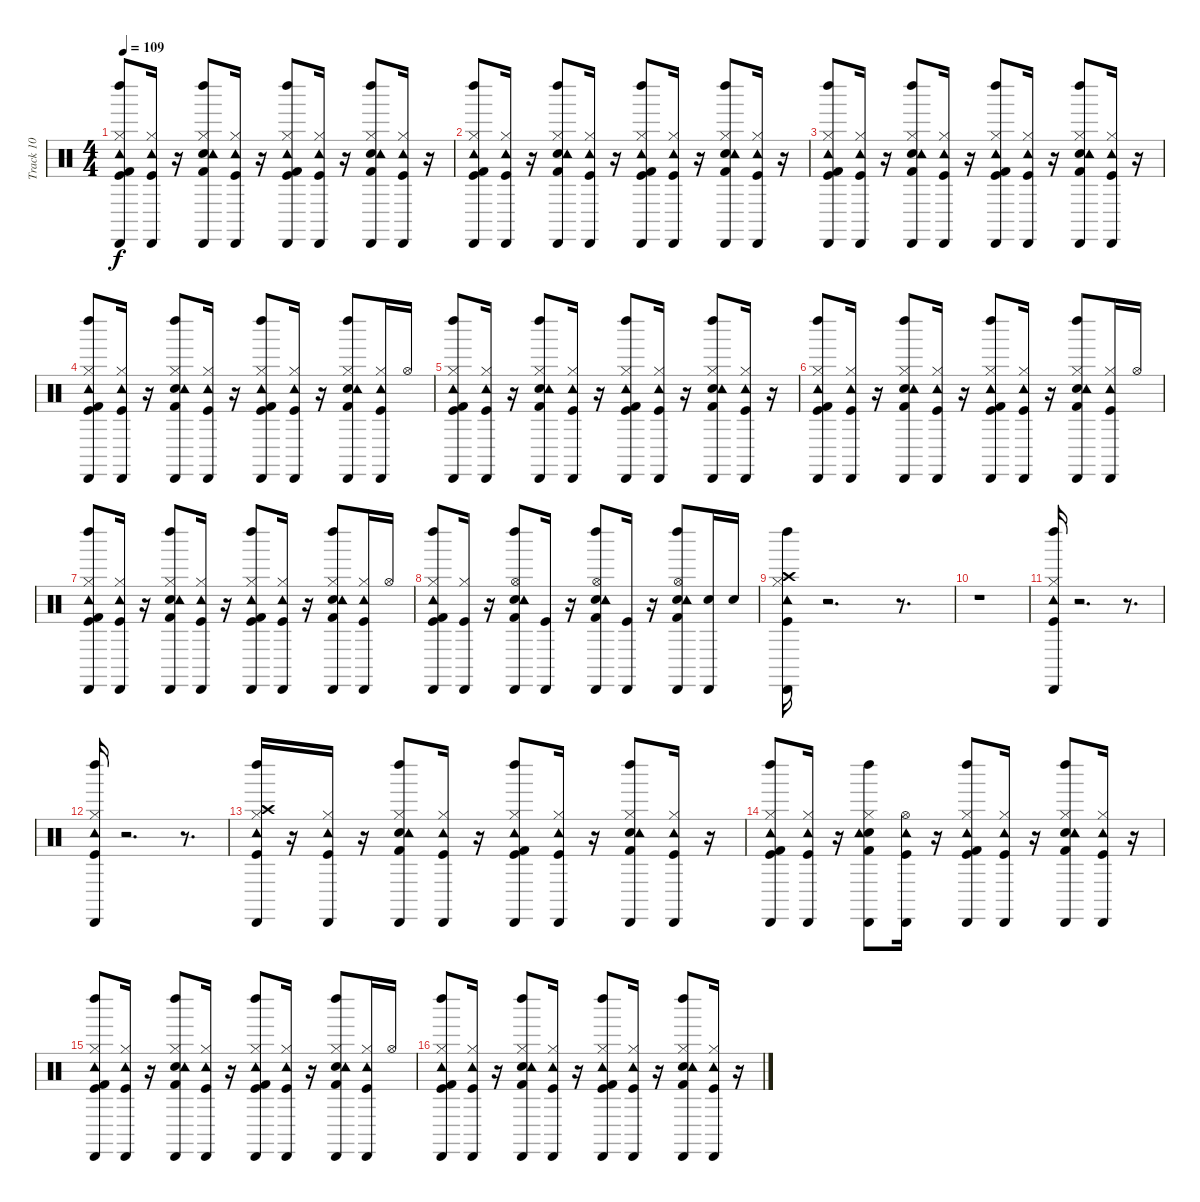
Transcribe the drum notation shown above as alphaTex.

\track ("Track 10" "Track 10") {instrument percussion}
\staff {score}
\articulation defaults
\ts (4 4)
\tempo 109
\clef neutral
\ks c
("Kick (hit)" "Hi-Hat (closed)" "Tambourine (hit)" "Left Maraca (hit)" "Cabasa (hit)" "Kick (hit) 2").8{dy f} ("Kick (hit)" "Hi-Hat (closed)" "Tambourine (hit)" "Cabasa (hit)").16 r.16 ("Snare (hit) 2" "Hi-Hat (closed)" "Tambourine (hit)" "Left Maraca (hit)" "Cabasa (hit)" "Kick (hit) 2").8 ("Kick (hit)" "Hi-Hat (closed)" "Tambourine (hit)" "Cabasa (hit)").16 r.16 ("Kick (hit)" "Hi-Hat (closed)" "Tambourine (hit)" "Left Maraca (hit)" "Cabasa (hit)" "Kick (hit) 2").8 ("Kick (hit)" "Hi-Hat (closed)" "Tambourine (hit)" "Cabasa (hit)").16 r.16 ("Snare (hit) 2" "Hi-Hat (closed)" "Tambourine (hit)" "Left Maraca (hit)" "Cabasa (hit)" "Kick (hit) 2").8 ("Kick (hit)" "Hi-Hat (closed)" "Tambourine (hit)" "Cabasa (hit)").16 r.16 |
("Kick (hit)" "Hi-Hat (closed)" "Tambourine (hit)" "Left Maraca (hit)" "Cabasa (hit)" "Kick (hit) 2").8 ("Kick (hit)" "Hi-Hat (closed)" "Tambourine (hit)" "Cabasa (hit)").16 r.16 ("Snare (hit) 2" "Hi-Hat (closed)" "Tambourine (hit)" "Left Maraca (hit)" "Cabasa (hit)" "Kick (hit) 2").8 ("Kick (hit)" "Hi-Hat (closed)" "Tambourine (hit)" "Cabasa (hit)").16 r.16 ("Kick (hit)" "Hi-Hat (closed)" "Tambourine (hit)" "Left Maraca (hit)" "Cabasa (hit)" "Kick (hit) 2").8 ("Kick (hit)" "Hi-Hat (closed)" "Tambourine (hit)" "Cabasa (hit)").16 r.16 ("Snare (hit) 2" "Hi-Hat (closed)" "Tambourine (hit)" "Left Maraca (hit)" "Cabasa (hit)" "Kick (hit) 2").8 ("Kick (hit)" "Hi-Hat (closed)" "Tambourine (hit)" "Cabasa (hit)").16 r.16 |
("Kick (hit)" "Hi-Hat (closed)" "Tambourine (hit)" "Left Maraca (hit)" "Cabasa (hit)" "Kick (hit) 2").8 ("Kick (hit)" "Hi-Hat (closed)" "Tambourine (hit)" "Cabasa (hit)").16 r.16 ("Snare (hit) 2" "Hi-Hat (closed)" "Tambourine (hit)" "Left Maraca (hit)" "Cabasa (hit)" "Kick (hit) 2").8 ("Kick (hit)" "Hi-Hat (closed)" "Tambourine (hit)" "Cabasa (hit)").16 r.16 ("Kick (hit)" "Hi-Hat (closed)" "Tambourine (hit)" "Left Maraca (hit)" "Cabasa (hit)" "Kick (hit) 2").8 ("Kick (hit)" "Hi-Hat (closed)" "Tambourine (hit)" "Cabasa (hit)").16 r.16 ("Snare (hit) 2" "Hi-Hat (closed)" "Tambourine (hit)" "Left Maraca (hit)" "Cabasa (hit)" "Kick (hit) 2").8 ("Kick (hit)" "Hi-Hat (closed)" "Tambourine (hit)" "Cabasa (hit)").16 r.16 |
("Kick (hit)" "Hi-Hat (closed)" "Tambourine (hit)" "Left Maraca (hit)" "Cabasa (hit)" "Kick (hit) 2").8 ("Kick (hit)" "Hi-Hat (closed)" "Tambourine (hit)" "Cabasa (hit)").16 r.16 ("Snare (hit) 2" "Hi-Hat (closed)" "Tambourine (hit)" "Left Maraca (hit)" "Cabasa (hit)" "Kick (hit) 2").8 ("Kick (hit)" "Hi-Hat (closed)" "Tambourine (hit)" "Cabasa (hit)").16 r.16 ("Kick (hit)" "Hi-Hat (closed)" "Tambourine (hit)" "Left Maraca (hit)" "Cabasa (hit)" "Kick (hit) 2").8 ("Kick (hit)" "Hi-Hat (closed)" "Tambourine (hit)" "Cabasa (hit)").16 r.16 ("Snare (hit) 2" "Hi-Hat (closed)" "Tambourine (hit)" "Left Maraca (hit)" "Cabasa (hit)" "Kick (hit) 2").8 ("Kick (hit)" "Hi-Hat (closed)" "Tambourine (hit)" "Cabasa (hit)").16 "Hi-Hat (open)".16 |
("Kick (hit)" "Hi-Hat (closed)" "Tambourine (hit)" "Left Maraca (hit)" "Cabasa (hit)" "Kick (hit) 2").8 ("Kick (hit)" "Hi-Hat (closed)" "Tambourine (hit)" "Cabasa (hit)").16 r.16 ("Snare (hit) 2" "Hi-Hat (closed)" "Tambourine (hit)" "Left Maraca (hit)" "Cabasa (hit)" "Kick (hit) 2").8 ("Kick (hit)" "Hi-Hat (closed)" "Tambourine (hit)" "Cabasa (hit)").16 r.16 ("Kick (hit)" "Hi-Hat (closed)" "Tambourine (hit)" "Left Maraca (hit)" "Cabasa (hit)" "Kick (hit) 2").8 ("Kick (hit)" "Hi-Hat (closed)" "Tambourine (hit)" "Cabasa (hit)").16 r.16 ("Snare (hit) 2" "Hi-Hat (closed)" "Tambourine (hit)" "Left Maraca (hit)" "Cabasa (hit)" "Kick (hit) 2").8 ("Kick (hit)" "Hi-Hat (closed)" "Tambourine (hit)" "Cabasa (hit)").16 r.16 |
("Kick (hit)" "Hi-Hat (closed)" "Tambourine (hit)" "Left Maraca (hit)" "Cabasa (hit)" "Kick (hit) 2").8 ("Kick (hit)" "Hi-Hat (closed)" "Tambourine (hit)" "Cabasa (hit)").16 r.16 ("Snare (hit) 2" "Hi-Hat (closed)" "Tambourine (hit)" "Left Maraca (hit)" "Cabasa (hit)" "Kick (hit) 2").8 ("Kick (hit)" "Hi-Hat (closed)" "Tambourine (hit)" "Cabasa (hit)").16 r.16 ("Kick (hit)" "Hi-Hat (closed)" "Tambourine (hit)" "Left Maraca (hit)" "Cabasa (hit)" "Kick (hit) 2").8 ("Kick (hit)" "Hi-Hat (closed)" "Tambourine (hit)" "Cabasa (hit)").16 r.16 ("Snare (hit) 2" "Hi-Hat (closed)" "Tambourine (hit)" "Left Maraca (hit)" "Cabasa (hit)" "Kick (hit) 2").8 ("Kick (hit)" "Hi-Hat (closed)" "Tambourine (hit)" "Cabasa (hit)").16 "Hi-Hat (open)".16 |
("Kick (hit)" "Hi-Hat (closed)" "Tambourine (hit)" "Left Maraca (hit)" "Cabasa (hit)" "Kick (hit) 2").8 ("Kick (hit)" "Hi-Hat (closed)" "Tambourine (hit)" "Cabasa (hit)").16 r.16 ("Snare (hit) 2" "Hi-Hat (closed)" "Tambourine (hit)" "Left Maraca (hit)" "Cabasa (hit)" "Kick (hit) 2").8 ("Kick (hit)" "Hi-Hat (closed)" "Tambourine (hit)" "Cabasa (hit)").16 r.16 ("Kick (hit)" "Hi-Hat (closed)" "Tambourine (hit)" "Left Maraca (hit)" "Cabasa (hit)" "Kick (hit) 2").8 ("Kick (hit)" "Hi-Hat (closed)" "Tambourine (hit)" "Cabasa (hit)").16 r.16 ("Snare (hit) 2" "Hi-Hat (closed)" "Tambourine (hit)" "Left Maraca (hit)" "Cabasa (hit)" "Kick (hit) 2").8 ("Kick (hit)" "Hi-Hat (closed)" "Tambourine (hit)" "Cabasa (hit)").16 "Hi-Hat (open)".16 |
("Kick (hit)" "Hi-Hat (closed)" "Tambourine (hit)" "Left Maraca (hit)" "Cabasa (hit)" "Kick (hit) 2").8 ("Kick (hit)" "Hi-Hat (closed)" "Cabasa (hit)").16 r.16 ("Snare (hit) 2" "Hi-Hat (open)" "Tambourine (hit)" "Left Maraca (hit)" "Cabasa (hit)" "Kick (hit) 2").8 ("Kick (hit)" "Cabasa (hit)").16 r.16 ("Snare (hit) 2" "Hi-Hat (open)" "Tambourine (hit)" "Left Maraca (hit)" "Cabasa (hit)" "Kick (hit) 2").8 ("Kick (hit)" "Cabasa (hit)").16 r.16 ("Snare (hit) 2" "Hi-Hat (open)" "Tambourine (hit)" "Left Maraca (hit)" "Cabasa (hit)" "Kick (hit) 2").8 ("Snare (hit) 2" "Cabasa (hit)").16 "Snare (hit) 2".16 |
("Kick (hit)" "Hi-Hat (closed)" "Crash high (hit)" "Tambourine (hit)" "Left Maraca (hit)" "Cabasa (hit)").16 r.2{d} r.8{d} |
r.1 |
("Kick (hit)" "Hi-Hat (closed)" "Tambourine (hit)" "Left Maraca (hit)" "Cabasa (hit)").16 r.2{d} r.8{d} |
("Kick (hit)" "Hi-Hat (closed)" "Tambourine (hit)" "Left Maraca (hit)" "Cabasa (hit)").16 r.2{d} r.8{d} |
("Kick (hit)" "Hi-Hat (closed)" "Crash high (hit)" "Tambourine (hit)" "Left Maraca (hit)" "Cabasa (hit)").16 r.16 ("Kick (hit)" "Hi-Hat (closed)" "Tambourine (hit)" "Cabasa (hit)").16 r.16 ("Snare (hit) 2" "Hi-Hat (closed)" "Tambourine (hit)" "Left Maraca (hit)" "Cabasa (hit)" "Kick (hit) 2").8 ("Kick (hit)" "Hi-Hat (closed)" "Tambourine (hit)" "Cabasa (hit)").16 r.16 ("Kick (hit)" "Hi-Hat (closed)" "Tambourine (hit)" "Left Maraca (hit)" "Cabasa (hit)" "Kick (hit) 2").8 ("Kick (hit)" "Hi-Hat (closed)" "Tambourine (hit)" "Cabasa (hit)").16 r.16 ("Snare (hit) 2" "Hi-Hat (closed)" "Tambourine (hit)" "Left Maraca (hit)" "Cabasa (hit)" "Kick (hit) 2").8 ("Kick (hit)" "Hi-Hat (closed)" "Tambourine (hit)" "Cabasa (hit)").16 r.16 |
("Kick (hit)" "Hi-Hat (closed)" "Tambourine (hit)" "Left Maraca (hit)" "Cabasa (hit)" "Kick (hit) 2").8 ("Kick (hit)" "Hi-Hat (closed)" "Tambourine (hit)" "Cabasa (hit)").16 r.16 ("Snare (hit) 2" "Hi-Hat (closed)" "Tambourine (hit)" "Left Maraca (hit)" "Cabasa (hit)" "Kick (hit) 2").8 ("Kick (hit)" "Hi-Hat (open)" "Tambourine (hit)" "Cabasa (hit)").16 r.16 ("Kick (hit)" "Hi-Hat (closed)" "Tambourine (hit)" "Left Maraca (hit)" "Cabasa (hit)" "Kick (hit) 2").8 ("Kick (hit)" "Hi-Hat (closed)" "Tambourine (hit)" "Cabasa (hit)").16 r.16 ("Snare (hit) 2" "Hi-Hat (closed)" "Tambourine (hit)" "Left Maraca (hit)" "Cabasa (hit)" "Kick (hit) 2").8 ("Kick (hit)" "Hi-Hat (closed)" "Tambourine (hit)" "Cabasa (hit)").16 r.16 |
("Kick (hit)" "Hi-Hat (closed)" "Tambourine (hit)" "Left Maraca (hit)" "Cabasa (hit)" "Kick (hit) 2").8 ("Kick (hit)" "Hi-Hat (closed)" "Tambourine (hit)" "Cabasa (hit)").16 r.16 ("Snare (hit) 2" "Hi-Hat (closed)" "Tambourine (hit)" "Left Maraca (hit)" "Cabasa (hit)" "Kick (hit) 2").8 ("Kick (hit)" "Hi-Hat (closed)" "Tambourine (hit)" "Cabasa (hit)").16 r.16 ("Kick (hit)" "Hi-Hat (closed)" "Tambourine (hit)" "Left Maraca (hit)" "Cabasa (hit)" "Kick (hit) 2").8 ("Kick (hit)" "Hi-Hat (closed)" "Tambourine (hit)" "Cabasa (hit)").16 r.16 ("Snare (hit) 2" "Hi-Hat (closed)" "Tambourine (hit)" "Left Maraca (hit)" "Cabasa (hit)" "Kick (hit) 2").8 ("Kick (hit)" "Hi-Hat (closed)" "Tambourine (hit)" "Cabasa (hit)").16 "Hi-Hat (open)".16 |
("Kick (hit)" "Hi-Hat (closed)" "Tambourine (hit)" "Left Maraca (hit)" "Cabasa (hit)" "Kick (hit) 2").8 ("Kick (hit)" "Hi-Hat (closed)" "Tambourine (hit)" "Cabasa (hit)").16 r.16 ("Snare (hit) 2" "Hi-Hat (closed)" "Tambourine (hit)" "Left Maraca (hit)" "Cabasa (hit)" "Kick (hit) 2").8 ("Kick (hit)" "Hi-Hat (closed)" "Tambourine (hit)" "Cabasa (hit)").16 r.16 ("Kick (hit)" "Hi-Hat (closed)" "Tambourine (hit)" "Left Maraca (hit)" "Cabasa (hit)" "Kick (hit) 2").8 ("Kick (hit)" "Hi-Hat (closed)" "Tambourine (hit)" "Cabasa (hit)").16 r.16 ("Snare (hit) 2" "Hi-Hat (closed)" "Tambourine (hit)" "Left Maraca (hit)" "Cabasa (hit)" "Kick (hit) 2").8 ("Kick (hit)" "Hi-Hat (closed)" "Tambourine (hit)" "Cabasa (hit)").16 r.16
